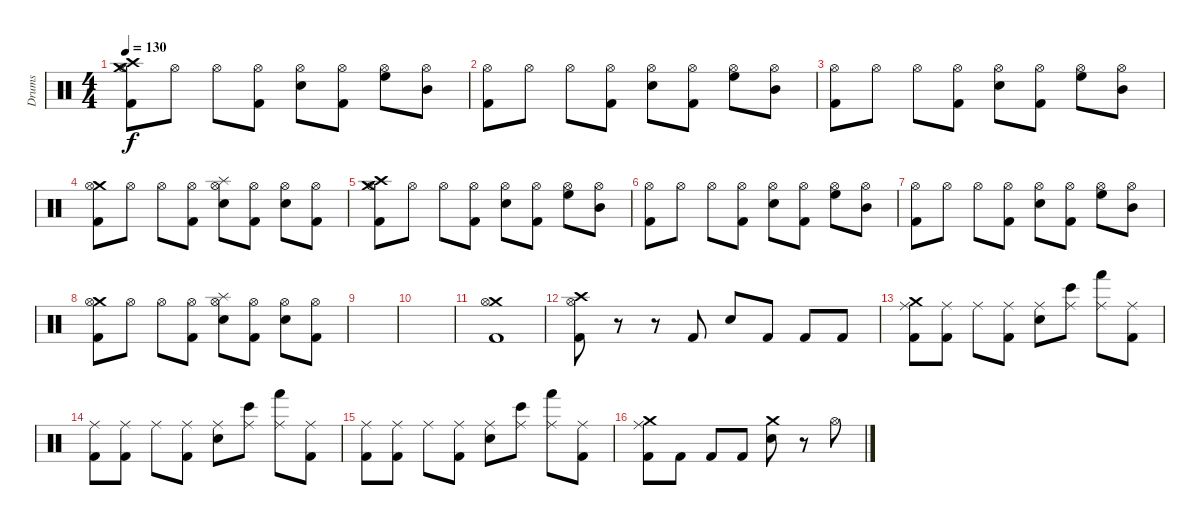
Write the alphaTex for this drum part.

\track ("Drums" "Drums") {instrument percussion}
\staff {score}
\articulation defaults
\ts (4 4)
\tempo 130
\clef neutral
\ks c
("Crash high (hit)" "Crash medium (hit)" "Kick (hit) 2" "Hi-Hat (open)").8{dy f} "Hi-Hat (open)".8 "Hi-Hat (open)".8 ("Kick (hit) 2" "Hi-Hat (open)").8 ("Snare (hit) 2" "Hi-Hat (open)").8 ("Kick (hit) 2" "Hi-Hat (open)").8 ("High Floor Tom (hit)" "Hi-Hat (open)").8 ("Mid Tom (hit)" "Hi-Hat (open)").8 |
("Kick (hit) 2" "Hi-Hat (open)").8 "Hi-Hat (open)".8 "Hi-Hat (open)".8 ("Kick (hit) 2" "Hi-Hat (open)").8 ("Snare (hit) 2" "Hi-Hat (open)").8 ("Kick (hit) 2" "Hi-Hat (open)").8 ("High Floor Tom (hit)" "Hi-Hat (open)").8 ("Mid Tom (hit)" "Hi-Hat (open)").8 |
("Kick (hit) 2" "Hi-Hat (open)").8 "Hi-Hat (open)".8 "Hi-Hat (open)".8 ("Kick (hit) 2" "Hi-Hat (open)").8 ("Snare (hit) 2" "Hi-Hat (open)").8 ("Kick (hit) 2" "Hi-Hat (open)").8 ("High Floor Tom (hit)" "Hi-Hat (open)").8 ("Mid Tom (hit)" "Hi-Hat (open)").8 |
("Crash medium (hit)" "Kick (hit) 2" "Hi-Hat (open)").8 "Hi-Hat (open)".8 "Hi-Hat (open)".8 ("Kick (hit) 2" "Hi-Hat (open)").8 ("Splash (hit)" "Snare (hit) 2" "Hi-Hat (open)").8 ("Kick (hit) 2" "Hi-Hat (open)").8 ("Snare (hit) 2" "Hi-Hat (open)").8 ("Kick (hit) 2" "Hi-Hat (open)").8 |
("Crash high (hit)" "Crash medium (hit)" "Kick (hit) 2" "Hi-Hat (open)").8 "Hi-Hat (open)".8 "Hi-Hat (open)".8 ("Kick (hit) 2" "Hi-Hat (open)").8 ("Snare (hit) 2" "Hi-Hat (open)").8 ("Kick (hit) 2" "Hi-Hat (open)").8 ("High Floor Tom (hit)" "Hi-Hat (open)").8 ("Mid Tom (hit)" "Hi-Hat (open)").8 |
("Kick (hit) 2" "Hi-Hat (open)").8 "Hi-Hat (open)".8 "Hi-Hat (open)".8 ("Kick (hit) 2" "Hi-Hat (open)").8 ("Snare (hit) 2" "Hi-Hat (open)").8 ("Kick (hit) 2" "Hi-Hat (open)").8 ("High Floor Tom (hit)" "Hi-Hat (open)").8 ("Mid Tom (hit)" "Hi-Hat (open)").8 |
("Kick (hit) 2" "Hi-Hat (open)").8 "Hi-Hat (open)".8 "Hi-Hat (open)".8 ("Kick (hit) 2" "Hi-Hat (open)").8 ("Snare (hit) 2" "Hi-Hat (open)").8 ("Kick (hit) 2" "Hi-Hat (open)").8 ("High Floor Tom (hit)" "Hi-Hat (open)").8 ("Mid Tom (hit)" "Hi-Hat (open)").8 |
("Crash medium (hit)" "Kick (hit) 2" "Hi-Hat (open)").8 "Hi-Hat (open)".8 "Hi-Hat (open)".8 ("Kick (hit) 2" "Hi-Hat (open)").8 ("Splash (hit)" "Snare (hit) 2" "Hi-Hat (open)").8 ("Kick (hit) 2" "Hi-Hat (open)").8 ("Snare (hit) 2" "Hi-Hat (open)").8 ("Kick (hit) 2" "Hi-Hat (open)").8 |
|
|
("Crash medium (hit)" "Kick (hit) 2" "Hi-Hat (open)").1 |
("Crash high (hit)" "Kick (hit) 2" "Hi-Hat (open)").8 r.8 r.8 "Kick (hit) 2".8 "Snare (hit) 2".8 "Kick (hit) 2".8 "Kick (hit) 2".8 "Kick (hit) 2".8 |
("Crash medium (hit)" "Kick (hit) 2" "Ride (middle)").8 ("Kick (hit) 2" "Ride (middle)").8 "Ride (middle)".8 ("Kick (hit) 2" "Ride (middle)").8 ("Snare (hit) 2" "Ride (middle)").8 ("Bongo High (hit)" "Ride (middle)").8 ("Hand (hit)" "Ride (middle)").8 ("Kick (hit) 2" "Ride (middle)").8 |
("Kick (hit) 2" "Ride (middle)").8 ("Kick (hit) 2" "Ride (middle)").8 "Ride (middle)".8 ("Kick (hit) 2" "Ride (middle)").8 ("Snare (hit) 2" "Ride (middle)").8 ("Bongo High (hit)" "Ride (middle)").8 ("Hand (hit)" "Ride (middle)").8 ("Kick (hit) 2" "Ride (middle)").8 |
("Kick (hit) 2" "Ride (middle)").8 ("Kick (hit) 2" "Ride (middle)").8 "Ride (middle)".8 ("Kick (hit) 2" "Ride (middle)").8 ("Snare (hit) 2" "Ride (middle)").8 ("Bongo High (hit)" "Ride (middle)").8 ("Hand (hit)" "Ride (middle)").8 ("Kick (hit) 2" "Ride (middle)").8 |
("Crash medium (hit)" "Kick (hit) 2" "Ride (middle)").8 "Kick (hit) 2".8 "Kick (hit) 2".8 "Kick (hit) 2".8 ("Crash medium (hit)" "Snare (hit) 2").8 r.8 "Hi-Hat (open)".8
